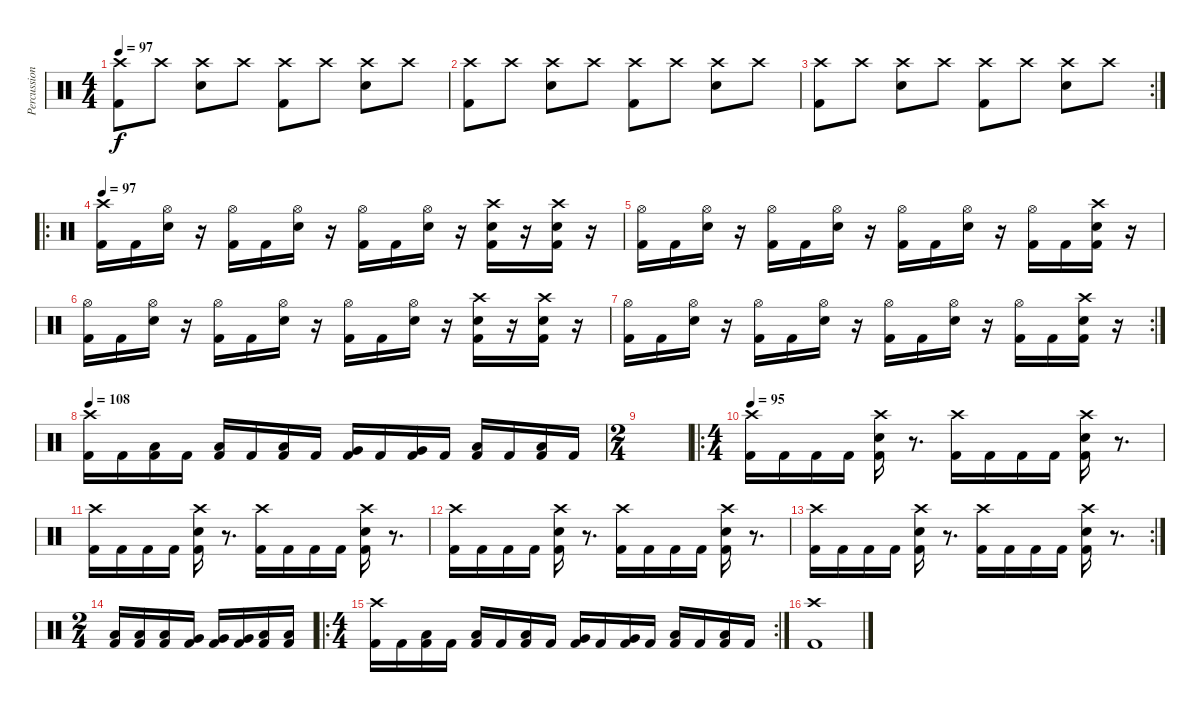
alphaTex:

\track ("Percussion" "Percussion") {instrument percussion}
\staff {score}
\articulation defaults
\ts (4 4)
\tempo 97
\clef neutral
\ks c
("Crash high (hit)" "Kick (hit) 2").8{dy f} "Crash high (hit)".8 ("Crash high (hit)" "Snare (hit) 2").8 "Crash high (hit)".8 ("Crash high (hit)" "Kick (hit) 2").8 "Crash high (hit)".8 ("Crash high (hit)" "Snare (hit) 2").8 "Crash high (hit)".8 |
("Crash high (hit)" "Kick (hit) 2").8 "Crash high (hit)".8 ("Crash high (hit)" "Snare (hit) 2").8 "Crash high (hit)".8 ("Crash high (hit)" "Kick (hit) 2").8 "Crash high (hit)".8 ("Crash high (hit)" "Snare (hit) 2").8 "Crash high (hit)".8 |
\rc 2
("Crash high (hit)" "Kick (hit) 2").8 "Crash high (hit)".8 ("Crash high (hit)" "Snare (hit) 2").8 "Crash high (hit)".8 ("Crash high (hit)" "Kick (hit) 2").8 "Crash high (hit)".8 ("Crash high (hit)" "Snare (hit) 2").8 "Crash high (hit)".8 |
\ro
\tempo 97
("Crash high (hit)" "Kick (hit) 2").16 "Kick (hit) 2".16 ("Hi-Hat (open)" "Snare (hit) 2").16 r.16 ("Hi-Hat (open)" "Kick (hit) 2").16 "Kick (hit) 2".16 ("Hi-Hat (open)" "Snare (hit) 2").16 r.16 ("Hi-Hat (open)" "Kick (hit) 2").16 "Kick (hit) 2".16 ("Hi-Hat (open)" "Snare (hit) 2").16 r.16 ("Crash high (hit)" "Snare (hit) 2" "Kick (hit) 2").16 r.16 ("Crash high (hit)" "Snare (hit) 2" "Kick (hit) 2").16 r.16 |
("Hi-Hat (open)" "Kick (hit) 2").16 "Kick (hit) 2".16 ("Hi-Hat (open)" "Snare (hit) 2").16 r.16 ("Hi-Hat (open)" "Kick (hit) 2").16 "Kick (hit) 2".16 ("Hi-Hat (open)" "Snare (hit) 2").16 r.16 ("Hi-Hat (open)" "Kick (hit) 2").16 "Kick (hit) 2".16 ("Hi-Hat (open)" "Snare (hit) 2").16 r.16 ("Hi-Hat (open)" "Kick (hit) 2").16 "Kick (hit) 2".16 ("Crash high (hit)" "Snare (hit) 2" "Kick (hit) 2").16 r.16 |
("Hi-Hat (open)" "Kick (hit) 2").16 "Kick (hit) 2".16 ("Hi-Hat (open)" "Snare (hit) 2").16 r.16 ("Hi-Hat (open)" "Kick (hit) 2").16 "Kick (hit) 2".16 ("Hi-Hat (open)" "Snare (hit) 2").16 r.16 ("Hi-Hat (open)" "Kick (hit) 2").16 "Kick (hit) 2".16 ("Hi-Hat (open)" "Snare (hit) 2").16 r.16 ("Crash high (hit)" "Snare (hit) 2" "Kick (hit) 2").16 r.16 ("Crash high (hit)" "Snare (hit) 2" "Kick (hit) 2").16 r.16 |
\rc 2
("Hi-Hat (open)" "Kick (hit) 2").16 "Kick (hit) 2".16 ("Hi-Hat (open)" "Snare (hit) 2").16 r.16 ("Hi-Hat (open)" "Kick (hit) 2").16 "Kick (hit) 2".16 ("Hi-Hat (open)" "Snare (hit) 2").16 r.16 ("Hi-Hat (open)" "Kick (hit) 2").16 "Kick (hit) 2".16 ("Hi-Hat (open)" "Snare (hit) 2").16 r.16 ("Hi-Hat (open)" "Kick (hit) 2").16 "Kick (hit) 2".16 ("Crash high (hit)" "Snare (hit) 2" "Kick (hit) 2").16 r.16 |
\tempo 108
("Kick (hit) 2" "Crash high (hit)").16 "Kick (hit) 2".16 ("Kick (hit) 2" "Low Tom (hit)").16 "Kick (hit) 2".16 ("Kick (hit) 2" "Low Tom (hit)").16 "Kick (hit) 2".16 ("Kick (hit) 2" "Low Tom (hit)").16 "Kick (hit) 2".16 ("Kick (hit) 2" "Very Low Tom (hit)").16 "Kick (hit) 2".16 ("Kick (hit) 2" "Very Low Tom (hit)").16 "Kick (hit) 2".16 ("Kick (hit) 2" "Low Floor Tom (hit)").16 "Kick (hit) 2".16 ("Kick (hit) 2" "Low Floor Tom (hit)").16 "Kick (hit) 2".16 |
\ts (2 4)
|
\ro
\ts (4 4)
\tempo 95
("Crash high (hit)" "Kick (hit) 2").16 "Kick (hit) 2".16 "Kick (hit) 2".16 "Kick (hit) 2".16 ("Crash high (hit)" "Snare (hit) 2" "Kick (hit) 2").16 r.8{d} ("Crash high (hit)" "Kick (hit) 2").16 "Kick (hit) 2".16 "Kick (hit) 2".16 "Kick (hit) 2".16 ("Crash high (hit)" "Snare (hit) 2" "Kick (hit) 2").16 r.8{d} |
("Crash high (hit)" "Kick (hit) 2").16 "Kick (hit) 2".16 "Kick (hit) 2".16 "Kick (hit) 2".16 ("Crash high (hit)" "Snare (hit) 2" "Kick (hit) 2").16 r.8{d} ("Crash high (hit)" "Kick (hit) 2").16 "Kick (hit) 2".16 "Kick (hit) 2".16 "Kick (hit) 2".16 ("Crash high (hit)" "Snare (hit) 2" "Kick (hit) 2").16 r.8{d} |
("Crash high (hit)" "Kick (hit) 2").16 "Kick (hit) 2".16 "Kick (hit) 2".16 "Kick (hit) 2".16 ("Crash high (hit)" "Snare (hit) 2" "Kick (hit) 2").16 r.8{d} ("Crash high (hit)" "Kick (hit) 2").16 "Kick (hit) 2".16 "Kick (hit) 2".16 "Kick (hit) 2".16 ("Crash high (hit)" "Snare (hit) 2" "Kick (hit) 2").16 r.8{d} |
\rc 2
("Crash high (hit)" "Kick (hit) 2").16 "Kick (hit) 2".16 "Kick (hit) 2".16 "Kick (hit) 2".16 ("Crash high (hit)" "Snare (hit) 2" "Kick (hit) 2").16 r.8{d} ("Crash high (hit)" "Kick (hit) 2").16 "Kick (hit) 2".16 "Kick (hit) 2".16 "Kick (hit) 2".16 ("Crash high (hit)" "Snare (hit) 2" "Kick (hit) 2").16 r.8{d} |
\ts (2 4)
("Low Tom (hit)" "Kick (hit) 2").16 ("Low Tom (hit)" "Kick (hit) 2").16 ("Low Tom (hit)" "Kick (hit) 2").16 ("Very Low Tom (hit)" "Kick (hit) 2").16 ("Very Low Tom (hit)" "Kick (hit) 2").16 ("Very Low Tom (hit)" "Kick (hit) 2").16 ("Low Floor Tom (hit)" "Kick (hit) 2").16 ("Low Floor Tom (hit)" "Kick (hit) 2").16 |
\ro
\rc 2
\ts (4 4)
("Kick (hit) 2" "Crash high (hit)").16 "Kick (hit) 2".16 ("Kick (hit) 2" "Low Tom (hit)").16 "Kick (hit) 2".16 ("Kick (hit) 2" "Low Tom (hit)").16 "Kick (hit) 2".16 ("Kick (hit) 2" "Low Tom (hit)").16 "Kick (hit) 2".16 ("Kick (hit) 2" "Very Low Tom (hit)").16 "Kick (hit) 2".16 ("Kick (hit) 2" "Very Low Tom (hit)").16 "Kick (hit) 2".16 ("Kick (hit) 2" "Low Floor Tom (hit)").16 "Kick (hit) 2".16 ("Kick (hit) 2" "Low Floor Tom (hit)").16 "Kick (hit) 2".16 |
("Kick (hit) 2" "Crash high (hit)").1
